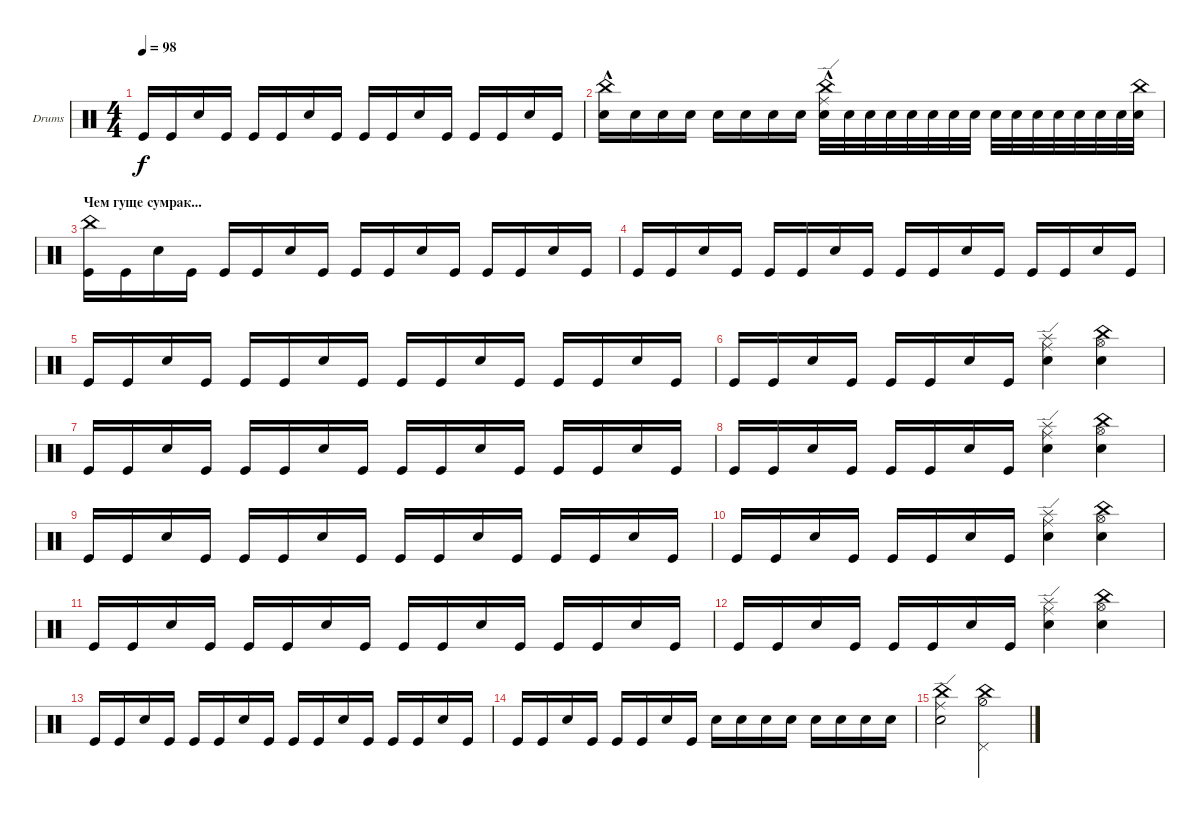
\defaultSystemsLayout 4
\bracketExtendMode groupsimilarinstruments
\firstSystemTrackNameOrientation horizontal
\otherSystemsTrackNameOrientation horizontal
\track ("Drumkit" "Drums") {instrument percussion}
\staff {score}
\articulation defaults
\ts (4 4)
\tempo 98
\clef neutral
\ks c "Kick (hit)".16{dy f} "Kick (hit)".16 "Snare (hit) 2".16 "Kick (hit)".16 "Kick (hit)".16 "Kick (hit)".16 "Snare (hit) 2".16 "Kick (hit)".16 "Kick (hit)".16 "Kick (hit)".16 "Snare (hit) 2".16 "Kick (hit)".16 "Kick (hit)".16 "Kick (hit)".16 "Snare (hit) 2".16 "Kick (hit)".16
|
("Snare (hit) 2" "China (hit)"{hac}).16 "Snare (hit) 2".16 "Snare (hit) 2".16 "Snare (hit) 2".16 "Snare (hit) 2".16 "Snare (hit) 2".16 "Snare (hit) 2".16 "Snare (hit) 2".16 ("Snare (hit) 2" "China (hit)"{hac} "Ride (edge)").32 "Snare (hit) 2".32 "Snare (hit) 2".32 "Snare (hit) 2".32 "Snare (hit) 2".32 "Snare (hit) 2".32 "Snare (hit) 2".32 "Snare (hit) 2".32 "Snare (hit) 2".32 "Snare (hit) 2".32 "Snare (hit) 2".32 "Snare (hit) 2".32 "Snare (hit) 2".32 "Snare (hit) 2".32 "Snare (hit) 2".32 ("Snare (hit) 2" "China (hit)").32 |
\section ("" "Чем гуще сумрак...")
("Kick (hit)" "China (hit)").16 "Kick (hit)".16 "Snare (hit) 2".16 "Kick (hit)".16 "Kick (hit)".16 "Kick (hit)".16 "Snare (hit) 2".16 "Kick (hit)".16 "Kick (hit)".16 "Kick (hit)".16 "Snare (hit) 2".16 "Kick (hit)".16 "Kick (hit)".16 "Kick (hit)".16 "Snare (hit) 2".16 "Kick (hit)".16 |
"Kick (hit)".16 "Kick (hit)".16 "Snare (hit) 2".16 "Kick (hit)".16 "Kick (hit)".16 "Kick (hit)".16 "Snare (hit) 2".16 "Kick (hit)".16 "Kick (hit)".16 "Kick (hit)".16 "Snare (hit) 2".16 "Kick (hit)".16 "Kick (hit)".16 "Kick (hit)".16 "Snare (hit) 2".16 "Kick (hit)".16 |
"Kick (hit)".16 "Kick (hit)".16 "Snare (hit) 2".16 "Kick (hit)".16 "Kick (hit)".16 "Kick (hit)".16 "Snare (hit) 2".16 "Kick (hit)".16 "Kick (hit)".16 "Kick (hit)".16 "Snare (hit) 2".16 "Kick (hit)".16 "Kick (hit)".16 "Kick (hit)".16 "Snare (hit) 2".16 "Kick (hit)".16 |
"Kick (hit)".16 "Kick (hit)".16 "Snare (hit) 2".16 "Kick (hit)".16 "Kick (hit)".16 "Kick (hit)".16 "Snare (hit) 2".16 "Kick (hit)".16 ("Snare (hit) 2" "Splash (hit)" "Ride (edge)").4 ("China (hit)" "Snare (hit) 2" "Hi-Hat (open)").4 |
"Kick (hit)".16 "Kick (hit)".16 "Snare (hit) 2".16 "Kick (hit)".16 "Kick (hit)".16 "Kick (hit)".16 "Snare (hit) 2".16 "Kick (hit)".16 "Kick (hit)".16 "Kick (hit)".16 "Snare (hit) 2".16 "Kick (hit)".16 "Kick (hit)".16 "Kick (hit)".16 "Snare (hit) 2".16 "Kick (hit)".16 |
"Kick (hit)".16 "Kick (hit)".16 "Snare (hit) 2".16 "Kick (hit)".16 "Kick (hit)".16 "Kick (hit)".16 "Snare (hit) 2".16 "Kick (hit)".16 ("Snare (hit) 2" "Splash (hit)" "Ride (edge)").4 ("China (hit)" "Snare (hit) 2" "Hi-Hat (open)").4 |
"Kick (hit)".16 "Kick (hit)".16 "Snare (hit) 2".16 "Kick (hit)".16 "Kick (hit)".16 "Kick (hit)".16 "Snare (hit) 2".16 "Kick (hit)".16 "Kick (hit)".16 "Kick (hit)".16 "Snare (hit) 2".16 "Kick (hit)".16 "Kick (hit)".16 "Kick (hit)".16 "Snare (hit) 2".16 "Kick (hit)".16 |
"Kick (hit)".16 "Kick (hit)".16 "Snare (hit) 2".16 "Kick (hit)".16 "Kick (hit)".16 "Kick (hit)".16 "Snare (hit) 2".16 "Kick (hit)".16 ("Snare (hit) 2" "Splash (hit)" "Ride (edge)").4 ("China (hit)" "Snare (hit) 2" "Hi-Hat (open)").4 |
"Kick (hit)".16 "Kick (hit)".16 "Snare (hit) 2".16 "Kick (hit)".16 "Kick (hit)".16 "Kick (hit)".16 "Snare (hit) 2".16 "Kick (hit)".16 "Kick (hit)".16 "Kick (hit)".16 "Snare (hit) 2".16 "Kick (hit)".16 "Kick (hit)".16 "Kick (hit)".16 "Snare (hit) 2".16 "Kick (hit)".16 |
"Kick (hit)".16 "Kick (hit)".16 "Snare (hit) 2".16 "Kick (hit)".16 "Kick (hit)".16 "Kick (hit)".16 "Snare (hit) 2".16 "Kick (hit)".16 ("Snare (hit) 2" "Splash (hit)" "Ride (edge)").4 ("China (hit)" "Snare (hit) 2" "Hi-Hat (open)").4 |
"Kick (hit)".16 "Kick (hit)".16 "Snare (hit) 2".16 "Kick (hit)".16 "Kick (hit)".16 "Kick (hit)".16 "Snare (hit) 2".16 "Kick (hit)".16 "Kick (hit)".16 "Kick (hit)".16 "Snare (hit) 2".16 "Kick (hit)".16 "Kick (hit)".16 "Kick (hit)".16 "Snare (hit) 2".16 "Kick (hit)".16 |
"Kick (hit)".16 "Kick (hit)".16 "Snare (hit) 2".16 "Kick (hit)".16 "Kick (hit)".16 "Kick (hit)".16 "Snare (hit) 2".16 "Kick (hit)".16 "Snare (hit) 2".16 "Snare (hit) 2".16 "Snare (hit) 2".16 "Snare (hit) 2".16 "Snare (hit) 2".16 "Snare (hit) 2".16 "Snare (hit) 2".16 "Snare (hit) 2".16 |
("China (hit)" "Ride (edge)" "Snare (hit) 2").2 ("China (hit)" "Pedal Hi-Hat (hit)" "Hi-Hat (half)").2
